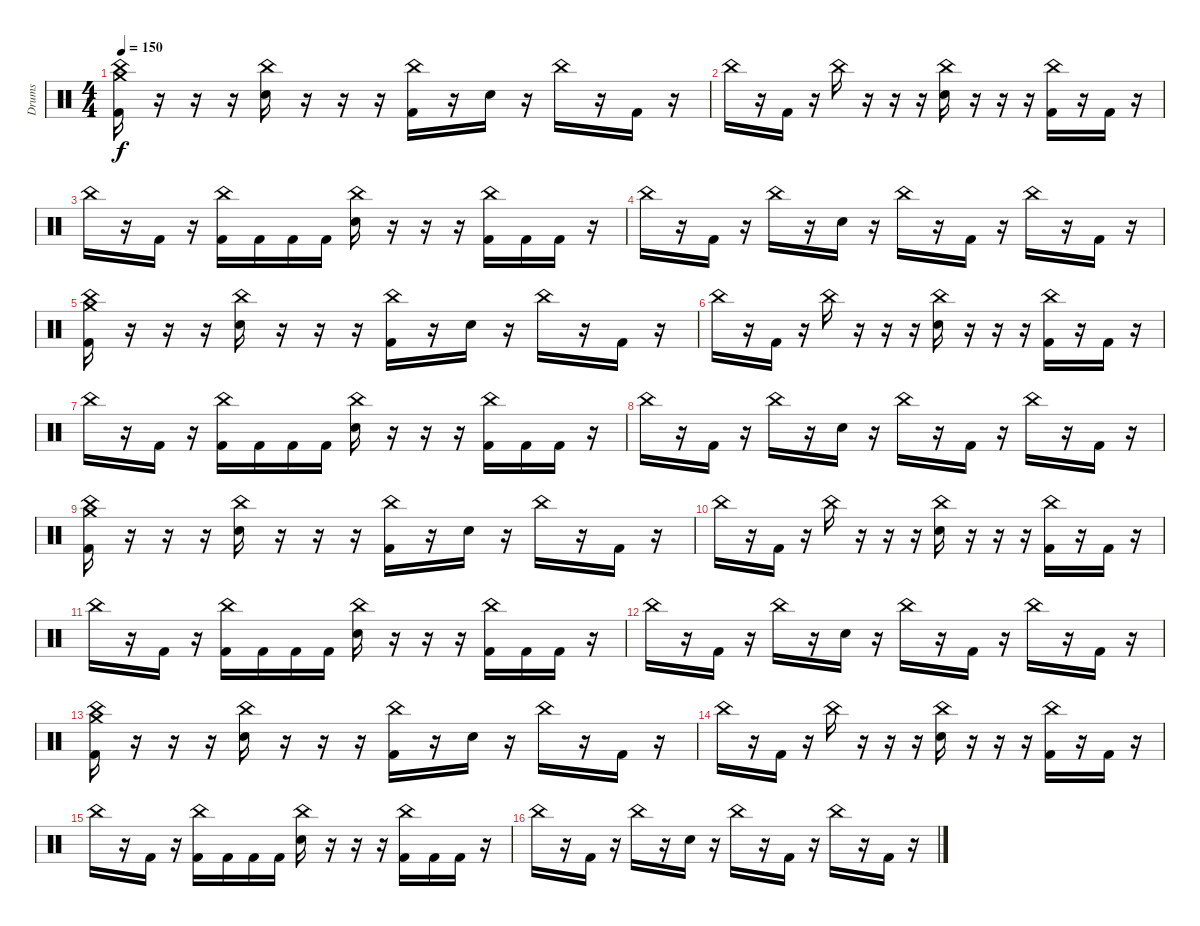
\track ("Drums" "Drums") {instrument percussion}
\staff {score}
\articulation defaults
\ts (4 4)
\tempo 150
\clef neutral
\ks c
("China (hit)" "Crash medium (hit)" "Kick (hit) 2").16{dy f} r.16 r.16 r.16 ("China (hit)" "Electric Snare (hit)").16 r.16 r.16 r.16 ("China (hit)" "Kick (hit) 2").16 r.16 "Electric Snare (hit)".16 r.16 "China (hit)".16 r.16 "Kick (hit) 2".16 r.16 |
"China (hit)".16 r.16 "Kick (hit) 2".16 r.16 "China (hit)".16 r.16 r.16 r.16 ("China (hit)" "Electric Snare (hit)").16 r.16 r.16 r.16 ("China (hit)" "Kick (hit) 2").16 r.16 "Kick (hit) 2".16 r.16 |
"China (hit)".16 r.16 "Kick (hit) 2".16 r.16 ("China (hit)" "Kick (hit) 2").16 "Kick (hit) 2".16 "Kick (hit) 2".16 "Kick (hit) 2".16 ("China (hit)" "Electric Snare (hit)").16 r.16 r.16 r.16 ("China (hit)" "Kick (hit) 2").16 "Kick (hit) 2".16 "Kick (hit) 2".16 r.16 |
"China (hit)".16 r.16 "Kick (hit) 2".16 r.16 "China (hit)".16 r.16 "Electric Snare (hit)".16 r.16 "China (hit)".16 r.16 "Kick (hit) 2".16 r.16 "China (hit)".16 r.16 "Kick (hit) 2".16 r.16 |
("China (hit)" "Crash medium (hit)" "Kick (hit) 2").16 r.16 r.16 r.16 ("China (hit)" "Electric Snare (hit)").16 r.16 r.16 r.16 ("China (hit)" "Kick (hit) 2").16 r.16 "Electric Snare (hit)".16 r.16 "China (hit)".16 r.16 "Kick (hit) 2".16 r.16 |
"China (hit)".16 r.16 "Kick (hit) 2".16 r.16 "China (hit)".16 r.16 r.16 r.16 ("China (hit)" "Electric Snare (hit)").16 r.16 r.16 r.16 ("China (hit)" "Kick (hit) 2").16 r.16 "Kick (hit) 2".16 r.16 |
"China (hit)".16 r.16 "Kick (hit) 2".16 r.16 ("China (hit)" "Kick (hit) 2").16 "Kick (hit) 2".16 "Kick (hit) 2".16 "Kick (hit) 2".16 ("China (hit)" "Electric Snare (hit)").16 r.16 r.16 r.16 ("China (hit)" "Kick (hit) 2").16 "Kick (hit) 2".16 "Kick (hit) 2".16 r.16 |
"China (hit)".16 r.16 "Kick (hit) 2".16 r.16 "China (hit)".16 r.16 "Electric Snare (hit)".16 r.16 "China (hit)".16 r.16 "Kick (hit) 2".16 r.16 "China (hit)".16 r.16 "Kick (hit) 2".16 r.16 |
("China (hit)" "Crash medium (hit)" "Kick (hit) 2").16 r.16 r.16 r.16 ("China (hit)" "Electric Snare (hit)").16 r.16 r.16 r.16 ("China (hit)" "Kick (hit) 2").16 r.16 "Electric Snare (hit)".16 r.16 "China (hit)".16 r.16 "Kick (hit) 2".16 r.16 |
"China (hit)".16 r.16 "Kick (hit) 2".16 r.16 "China (hit)".16 r.16 r.16 r.16 ("China (hit)" "Electric Snare (hit)").16 r.16 r.16 r.16 ("China (hit)" "Kick (hit) 2").16 r.16 "Kick (hit) 2".16 r.16 |
"China (hit)".16 r.16 "Kick (hit) 2".16 r.16 ("China (hit)" "Kick (hit) 2").16 "Kick (hit) 2".16 "Kick (hit) 2".16 "Kick (hit) 2".16 ("China (hit)" "Electric Snare (hit)").16 r.16 r.16 r.16 ("China (hit)" "Kick (hit) 2").16 "Kick (hit) 2".16 "Kick (hit) 2".16 r.16 |
"China (hit)".16 r.16 "Kick (hit) 2".16 r.16 "China (hit)".16 r.16 "Electric Snare (hit)".16 r.16 "China (hit)".16 r.16 "Kick (hit) 2".16 r.16 "China (hit)".16 r.16 "Kick (hit) 2".16 r.16 |
("China (hit)" "Crash medium (hit)" "Kick (hit) 2").16 r.16 r.16 r.16 ("China (hit)" "Electric Snare (hit)").16 r.16 r.16 r.16 ("China (hit)" "Kick (hit) 2").16 r.16 "Electric Snare (hit)".16 r.16 "China (hit)".16 r.16 "Kick (hit) 2".16 r.16 |
"China (hit)".16 r.16 "Kick (hit) 2".16 r.16 "China (hit)".16 r.16 r.16 r.16 ("China (hit)" "Electric Snare (hit)").16 r.16 r.16 r.16 ("China (hit)" "Kick (hit) 2").16 r.16 "Kick (hit) 2".16 r.16 |
"China (hit)".16 r.16 "Kick (hit) 2".16 r.16 ("China (hit)" "Kick (hit) 2").16 "Kick (hit) 2".16 "Kick (hit) 2".16 "Kick (hit) 2".16 ("China (hit)" "Electric Snare (hit)").16 r.16 r.16 r.16 ("China (hit)" "Kick (hit) 2").16 "Kick (hit) 2".16 "Kick (hit) 2".16 r.16 |
"China (hit)".16 r.16 "Kick (hit) 2".16 r.16 "China (hit)".16 r.16 "Electric Snare (hit)".16 r.16 "China (hit)".16 r.16 "Kick (hit) 2".16 r.16 "China (hit)".16 r.16 "Kick (hit) 2".16 r.16
